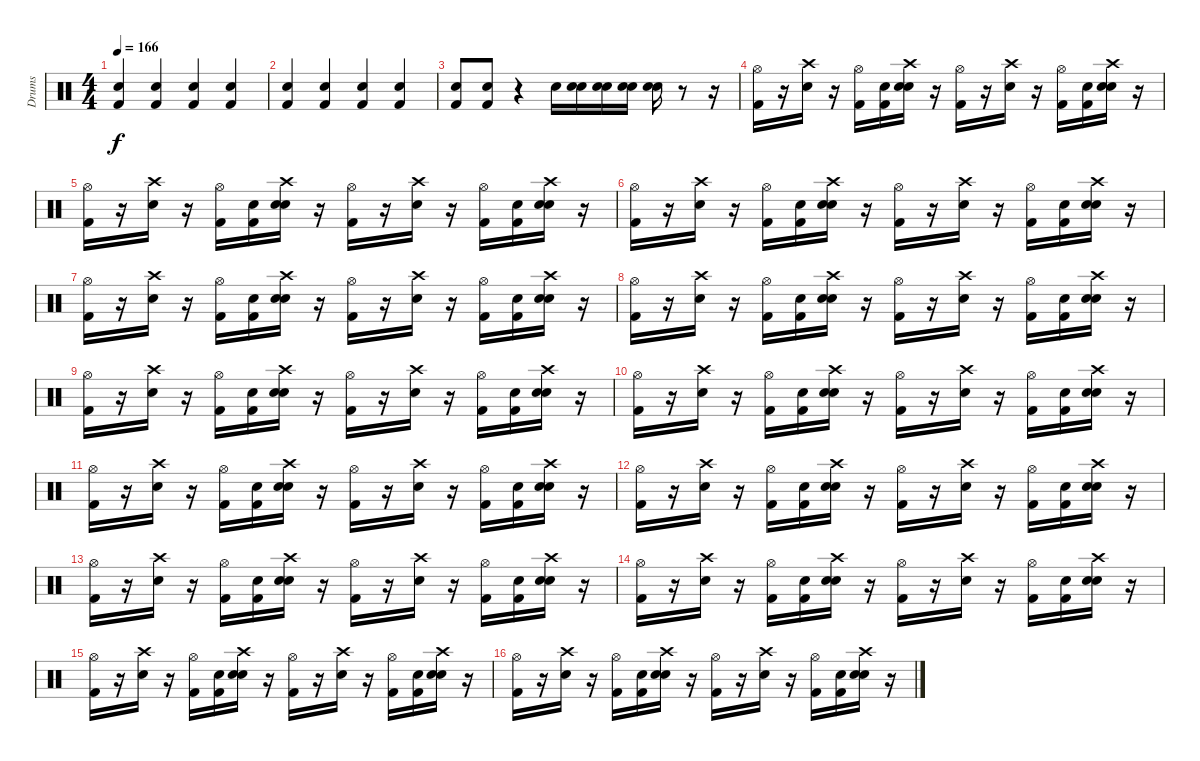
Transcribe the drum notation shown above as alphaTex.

\track ("Drums" "Drums") {instrument percussion}
\staff {score}
\articulation defaults
\ts (4 4)
\tempo 166
\clef neutral
\ks c
("Snare (hit)" "Kick (hit) 2").4{dy f} ("Snare (hit)" "Kick (hit) 2").4 ("Snare (hit)" "Kick (hit) 2").4 ("Snare (hit)" "Kick (hit) 2").4 |
("Snare (hit)" "Kick (hit) 2").4 ("Snare (hit)" "Kick (hit) 2").4 ("Snare (hit)" "Kick (hit) 2").4 ("Snare (hit)" "Kick (hit) 2").4 |
("Snare (hit)" "Kick (hit) 2").8 ("Snare (hit)" "Kick (hit) 2").8 r.4 "Electric Snare (hit)".16 ("Snare (hit)" "Electric Snare (hit)").16 ("Snare (hit)" "Electric Snare (hit)").16 ("Snare (hit)" "Electric Snare (hit)").16 ("Snare (hit)" "Electric Snare (hit)").16 r.8 r.16 |
("Hi-Hat (open)" "Kick (hit) 2").16 r.16 ("Crash high (hit)" "Electric Snare (hit)").16 r.16 ("Hi-Hat (open)" "Kick (hit) 2").16 ("Snare (hit)" "Kick (hit) 2").16 ("Snare (hit)" "Crash high (hit)" "Electric Snare (hit)").16 r.16 ("Hi-Hat (open)" "Kick (hit) 2").16 r.16 ("Electric Snare (hit)" "Crash high (hit)").16 r.16 ("Hi-Hat (open)" "Kick (hit) 2").16 ("Snare (hit)" "Kick (hit) 2").16 ("Snare (hit)" "Crash high (hit)" "Electric Snare (hit)").16 r.16 |
("Hi-Hat (open)" "Kick (hit) 2").16 r.16 ("Crash high (hit)" "Electric Snare (hit)").16 r.16 ("Hi-Hat (open)" "Kick (hit) 2").16 ("Snare (hit)" "Kick (hit) 2").16 ("Snare (hit)" "Crash high (hit)" "Electric Snare (hit)").16 r.16 ("Hi-Hat (open)" "Kick (hit) 2").16 r.16 ("Electric Snare (hit)" "Crash high (hit)").16 r.16 ("Hi-Hat (open)" "Kick (hit) 2").16 ("Snare (hit)" "Kick (hit) 2").16 ("Snare (hit)" "Crash high (hit)" "Electric Snare (hit)").16 r.16 |
("Hi-Hat (open)" "Kick (hit) 2").16 r.16 ("Crash high (hit)" "Electric Snare (hit)").16 r.16 ("Hi-Hat (open)" "Kick (hit) 2").16 ("Snare (hit)" "Kick (hit) 2").16 ("Snare (hit)" "Crash high (hit)" "Electric Snare (hit)").16 r.16 ("Hi-Hat (open)" "Kick (hit) 2").16 r.16 ("Electric Snare (hit)" "Crash high (hit)").16 r.16 ("Hi-Hat (open)" "Kick (hit) 2").16 ("Snare (hit)" "Kick (hit) 2").16 ("Snare (hit)" "Crash high (hit)" "Electric Snare (hit)").16 r.16 |
("Hi-Hat (open)" "Kick (hit) 2").16 r.16 ("Crash high (hit)" "Electric Snare (hit)").16 r.16 ("Hi-Hat (open)" "Kick (hit) 2").16 ("Snare (hit)" "Kick (hit) 2").16 ("Snare (hit)" "Crash high (hit)" "Electric Snare (hit)").16 r.16 ("Hi-Hat (open)" "Kick (hit) 2").16 r.16 ("Electric Snare (hit)" "Crash high (hit)").16 r.16 ("Hi-Hat (open)" "Kick (hit) 2").16 ("Snare (hit)" "Kick (hit) 2").16 ("Snare (hit)" "Crash high (hit)" "Electric Snare (hit)").16 r.16 |
("Hi-Hat (open)" "Kick (hit) 2").16 r.16 ("Crash high (hit)" "Electric Snare (hit)").16 r.16 ("Hi-Hat (open)" "Kick (hit) 2").16 ("Snare (hit)" "Kick (hit) 2").16 ("Snare (hit)" "Crash high (hit)" "Electric Snare (hit)").16 r.16 ("Hi-Hat (open)" "Kick (hit) 2").16 r.16 ("Electric Snare (hit)" "Crash high (hit)").16 r.16 ("Hi-Hat (open)" "Kick (hit) 2").16 ("Snare (hit)" "Kick (hit) 2").16 ("Snare (hit)" "Crash high (hit)" "Electric Snare (hit)").16 r.16 |
("Hi-Hat (open)" "Kick (hit) 2").16 r.16 ("Crash high (hit)" "Electric Snare (hit)").16 r.16 ("Hi-Hat (open)" "Kick (hit) 2").16 ("Snare (hit)" "Kick (hit) 2").16 ("Snare (hit)" "Crash high (hit)" "Electric Snare (hit)").16 r.16 ("Hi-Hat (open)" "Kick (hit) 2").16 r.16 ("Electric Snare (hit)" "Crash high (hit)").16 r.16 ("Hi-Hat (open)" "Kick (hit) 2").16 ("Snare (hit)" "Kick (hit) 2").16 ("Snare (hit)" "Crash high (hit)" "Electric Snare (hit)").16 r.16 |
("Hi-Hat (open)" "Kick (hit) 2").16 r.16 ("Crash high (hit)" "Electric Snare (hit)").16 r.16 ("Hi-Hat (open)" "Kick (hit) 2").16 ("Snare (hit)" "Kick (hit) 2").16 ("Snare (hit)" "Crash high (hit)" "Electric Snare (hit)").16 r.16 ("Hi-Hat (open)" "Kick (hit) 2").16 r.16 ("Electric Snare (hit)" "Crash high (hit)").16 r.16 ("Hi-Hat (open)" "Kick (hit) 2").16 ("Snare (hit)" "Kick (hit) 2").16 ("Snare (hit)" "Crash high (hit)" "Electric Snare (hit)").16 r.16 |
("Hi-Hat (open)" "Kick (hit) 2").16 r.16 ("Crash high (hit)" "Electric Snare (hit)").16 r.16 ("Hi-Hat (open)" "Kick (hit) 2").16 ("Snare (hit)" "Kick (hit) 2").16 ("Snare (hit)" "Crash high (hit)" "Electric Snare (hit)").16 r.16 ("Hi-Hat (open)" "Kick (hit) 2").16 r.16 ("Electric Snare (hit)" "Crash high (hit)").16 r.16 ("Hi-Hat (open)" "Kick (hit) 2").16 ("Snare (hit)" "Kick (hit) 2").16 ("Snare (hit)" "Crash high (hit)" "Electric Snare (hit)").16 r.16 |
("Hi-Hat (open)" "Kick (hit) 2").16 r.16 ("Crash high (hit)" "Electric Snare (hit)").16 r.16 ("Hi-Hat (open)" "Kick (hit) 2").16 ("Snare (hit)" "Kick (hit) 2").16 ("Snare (hit)" "Crash high (hit)" "Electric Snare (hit)").16 r.16 ("Hi-Hat (open)" "Kick (hit) 2").16 r.16 ("Electric Snare (hit)" "Crash high (hit)").16 r.16 ("Hi-Hat (open)" "Kick (hit) 2").16 ("Snare (hit)" "Kick (hit) 2").16 ("Snare (hit)" "Crash high (hit)" "Electric Snare (hit)").16 r.16 |
("Hi-Hat (open)" "Kick (hit) 2").16 r.16 ("Crash high (hit)" "Electric Snare (hit)").16 r.16 ("Hi-Hat (open)" "Kick (hit) 2").16 ("Snare (hit)" "Kick (hit) 2").16 ("Snare (hit)" "Crash high (hit)" "Electric Snare (hit)").16 r.16 ("Hi-Hat (open)" "Kick (hit) 2").16 r.16 ("Electric Snare (hit)" "Crash high (hit)").16 r.16 ("Hi-Hat (open)" "Kick (hit) 2").16 ("Snare (hit)" "Kick (hit) 2").16 ("Snare (hit)" "Crash high (hit)" "Electric Snare (hit)").16 r.16 |
("Hi-Hat (open)" "Kick (hit) 2").16 r.16 ("Crash high (hit)" "Electric Snare (hit)").16 r.16 ("Hi-Hat (open)" "Kick (hit) 2").16 ("Snare (hit)" "Kick (hit) 2").16 ("Snare (hit)" "Crash high (hit)" "Electric Snare (hit)").16 r.16 ("Hi-Hat (open)" "Kick (hit) 2").16 r.16 ("Electric Snare (hit)" "Crash high (hit)").16 r.16 ("Hi-Hat (open)" "Kick (hit) 2").16 ("Snare (hit)" "Kick (hit) 2").16 ("Snare (hit)" "Crash high (hit)" "Electric Snare (hit)").16 r.16 |
("Hi-Hat (open)" "Kick (hit) 2").16 r.16 ("Crash high (hit)" "Electric Snare (hit)").16 r.16 ("Hi-Hat (open)" "Kick (hit) 2").16 ("Snare (hit)" "Kick (hit) 2").16 ("Snare (hit)" "Crash high (hit)" "Electric Snare (hit)").16 r.16 ("Hi-Hat (open)" "Kick (hit) 2").16 r.16 ("Electric Snare (hit)" "Crash high (hit)").16 r.16 ("Hi-Hat (open)" "Kick (hit) 2").16 ("Snare (hit)" "Kick (hit) 2").16 ("Snare (hit)" "Crash high (hit)" "Electric Snare (hit)").16 r.16 |
("Hi-Hat (open)" "Kick (hit) 2").16 r.16 ("Crash high (hit)" "Electric Snare (hit)").16 r.16 ("Hi-Hat (open)" "Kick (hit) 2").16 ("Snare (hit)" "Kick (hit) 2").16 ("Snare (hit)" "Crash high (hit)" "Electric Snare (hit)").16 r.16 ("Hi-Hat (open)" "Kick (hit) 2").16 r.16 ("Electric Snare (hit)" "Crash high (hit)").16 r.16 ("Hi-Hat (open)" "Kick (hit) 2").16 ("Snare (hit)" "Kick (hit) 2").16 ("Snare (hit)" "Crash high (hit)" "Electric Snare (hit)").16 r.16
